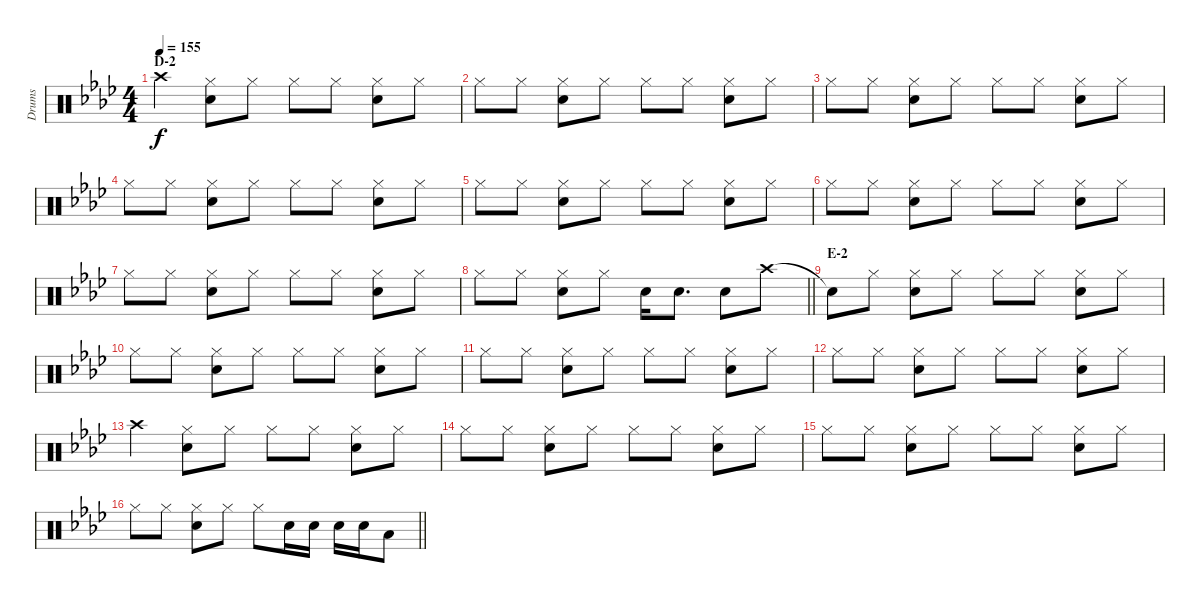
\track ("Drums" "Drums") {instrument percussion}
\staff {score}
\articulation defaults
\ts (4 4)
\section ("" "D-2")
\tempo 155
\clef neutral
\ks ab "Crash high (hit)".4{dy f}
("Hi-Hat (closed)" "Snare (hit) 2").8 "Hi-Hat (closed)".8 "Hi-Hat (closed)".8 "Hi-Hat (closed)".8 ("Hi-Hat (closed)" "Snare (hit) 2").8 "Hi-Hat (closed)".8 |
"Hi-Hat (closed)".8 "Hi-Hat (closed)".8 ("Hi-Hat (closed)" "Snare (hit) 2").8 "Hi-Hat (closed)".8 "Hi-Hat (closed)".8 "Hi-Hat (closed)".8 ("Hi-Hat (closed)" "Snare (hit) 2").8 "Hi-Hat (closed)".8 |
"Hi-Hat (closed)".8 "Hi-Hat (closed)".8 ("Hi-Hat (closed)" "Snare (hit) 2").8 "Hi-Hat (closed)".8 "Hi-Hat (closed)".8 "Hi-Hat (closed)".8 ("Hi-Hat (closed)" "Snare (hit) 2").8 "Hi-Hat (closed)".8 |
"Hi-Hat (closed)".8 "Hi-Hat (closed)".8 ("Hi-Hat (closed)" "Snare (hit) 2").8 "Hi-Hat (closed)".8 "Hi-Hat (closed)".8 "Hi-Hat (closed)".8 ("Hi-Hat (closed)" "Snare (hit) 2").8 "Hi-Hat (closed)".8 |
"Hi-Hat (closed)".8 "Hi-Hat (closed)".8 ("Hi-Hat (closed)" "Snare (hit) 2").8 "Hi-Hat (closed)".8 "Hi-Hat (closed)".8 "Hi-Hat (closed)".8 ("Hi-Hat (closed)" "Snare (hit) 2").8 "Hi-Hat (closed)".8 |
"Hi-Hat (closed)".8 "Hi-Hat (closed)".8 ("Hi-Hat (closed)" "Snare (hit) 2").8 "Hi-Hat (closed)".8 "Hi-Hat (closed)".8 "Hi-Hat (closed)".8 ("Hi-Hat (closed)" "Snare (hit) 2").8 "Hi-Hat (closed)".8 |
"Hi-Hat (closed)".8 "Hi-Hat (closed)".8 ("Hi-Hat (closed)" "Snare (hit) 2").8 "Hi-Hat (closed)".8 "Hi-Hat (closed)".8 "Hi-Hat (closed)".8 ("Hi-Hat (closed)" "Snare (hit) 2").8 "Hi-Hat (closed)".8 |
\barLineRight lightlight "Hi-Hat (closed)".8 "Hi-Hat (closed)".8
("Hi-Hat (closed)" "Snare (hit) 2").8 "Hi-Hat (closed)".8 "Snare (hit) 2".16 "Snare (hit) 2".8{d} "Snare (hit) 2".8 "Crash high (hit)".8 |
\section ("" "E-2")
"Snare (hit)"{t}.8 "Hi-Hat (closed)".8 ("Hi-Hat (closed)" "Snare (hit) 2").8 "Hi-Hat (closed)".8 "Hi-Hat (closed)".8 "Hi-Hat (closed)".8 ("Hi-Hat (closed)" "Snare (hit) 2").8 "Hi-Hat (closed)".8 |
"Hi-Hat (closed)".8 "Hi-Hat (closed)".8 ("Hi-Hat (closed)" "Snare (hit) 2").8 "Hi-Hat (closed)".8 "Hi-Hat (closed)".8 "Hi-Hat (closed)".8 ("Hi-Hat (closed)" "Snare (hit) 2").8 "Hi-Hat (closed)".8 |
"Hi-Hat (closed)".8 "Hi-Hat (closed)".8 ("Hi-Hat (closed)" "Snare (hit) 2").8 "Hi-Hat (closed)".8 "Hi-Hat (closed)".8 "Hi-Hat (closed)".8 ("Hi-Hat (closed)" "Snare (hit) 2").8 "Hi-Hat (closed)".8 |
"Hi-Hat (closed)".8 "Hi-Hat (closed)".8 ("Hi-Hat (closed)" "Snare (hit) 2").8 "Hi-Hat (closed)".8 "Hi-Hat (closed)".8 "Hi-Hat (closed)".8 ("Hi-Hat (closed)" "Snare (hit) 2").8 "Hi-Hat (closed)".8 |
"Crash high (hit)".4 ("Hi-Hat (closed)" "Snare (hit) 2").8 "Hi-Hat (closed)".8 "Hi-Hat (closed)".8 "Hi-Hat (closed)".8 ("Hi-Hat (closed)" "Snare (hit) 2").8 "Hi-Hat (closed)".8 |
"Hi-Hat (closed)".8 "Hi-Hat (closed)".8 ("Hi-Hat (closed)" "Snare (hit) 2").8 "Hi-Hat (closed)".8 "Hi-Hat (closed)".8 "Hi-Hat (closed)".8 ("Hi-Hat (closed)" "Snare (hit) 2").8 "Hi-Hat (closed)".8 |
"Hi-Hat (closed)".8 "Hi-Hat (closed)".8 ("Hi-Hat (closed)" "Snare (hit) 2").8 "Hi-Hat (closed)".8 "Hi-Hat (closed)".8 "Hi-Hat (closed)".8 ("Hi-Hat (closed)" "Snare (hit) 2").8 "Hi-Hat (closed)".8 |
\barLineRight lightlight "Hi-Hat (closed)".8 "Hi-Hat (closed)".8
("Hi-Hat (closed)" "Snare (hit) 2").8 "Hi-Hat (closed)".8 "Hi-Hat (closed)".8 "Snare (hit) 2".16 "Snare (hit) 2".16 "Snare (hit) 2".16 "Snare (hit) 2".16 "Low Tom (hit)".8
